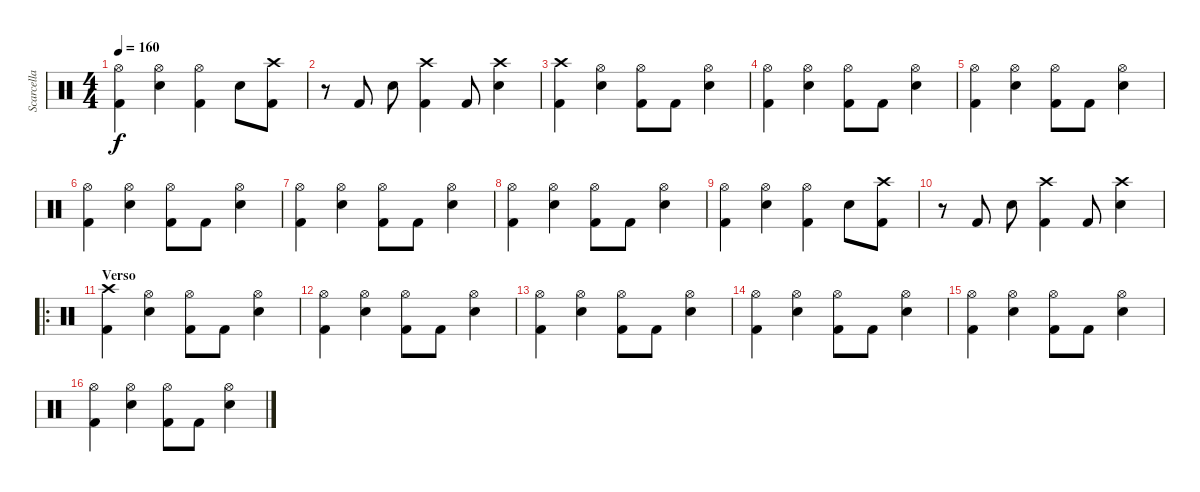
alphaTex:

\track ("Scarcella" "Scarcella") {instrument percussion}
\staff {score}
\articulation defaults
\ts (4 4)
\tempo 160
\clef neutral
\ks c
("Hi-Hat (open)" "Kick (hit) 2").4{dy f} ("Hi-Hat (open)" "Snare (hit) 2").4 ("Hi-Hat (open)" "Kick (hit) 2").4 "Snare (hit) 2".8 ("Crash high (hit)" "Kick (hit) 2").8 |
r.8 "Kick (hit) 2".8 "Snare (hit) 2".8 ("Crash high (hit)" "Kick (hit) 2").4 "Kick (hit) 2".8 ("Crash high (hit)" "Snare (hit) 2").4 |
("Crash high (hit)" "Kick (hit) 2").4 ("Hi-Hat (open)" "Snare (hit) 2").4 ("Hi-Hat (open)" "Kick (hit) 2").8 "Kick (hit) 2".8 ("Hi-Hat (open)" "Snare (hit) 2").4 |
("Hi-Hat (open)" "Kick (hit) 2").4 ("Hi-Hat (open)" "Snare (hit) 2").4 ("Hi-Hat (open)" "Kick (hit) 2").8 "Kick (hit) 2".8 ("Hi-Hat (open)" "Snare (hit) 2").4 |
("Hi-Hat (open)" "Kick (hit) 2").4 ("Hi-Hat (open)" "Snare (hit) 2").4 ("Hi-Hat (open)" "Kick (hit) 2").8 "Kick (hit) 2".8 ("Hi-Hat (open)" "Snare (hit) 2").4 |
("Hi-Hat (open)" "Kick (hit) 2").4 ("Hi-Hat (open)" "Snare (hit) 2").4 ("Hi-Hat (open)" "Kick (hit) 2").8 "Kick (hit) 2".8 ("Hi-Hat (open)" "Snare (hit) 2").4 |
("Hi-Hat (open)" "Kick (hit) 2").4 ("Hi-Hat (open)" "Snare (hit) 2").4 ("Hi-Hat (open)" "Kick (hit) 2").8 "Kick (hit) 2".8 ("Hi-Hat (open)" "Snare (hit) 2").4 |
("Hi-Hat (open)" "Kick (hit) 2").4 ("Hi-Hat (open)" "Snare (hit) 2").4 ("Hi-Hat (open)" "Kick (hit) 2").8 "Kick (hit) 2".8 ("Hi-Hat (open)" "Snare (hit) 2").4 |
("Hi-Hat (open)" "Kick (hit) 2").4 ("Hi-Hat (open)" "Snare (hit) 2").4 ("Hi-Hat (open)" "Kick (hit) 2").4 "Snare (hit) 2".8 ("Crash high (hit)" "Kick (hit) 2").8 |
r.8 "Kick (hit) 2".8 "Snare (hit) 2".8 ("Crash high (hit)" "Kick (hit) 2").4 "Kick (hit) 2".8 ("Crash high (hit)" "Snare (hit) 2").4 |
\ro
\section ("" "Verso")
("Crash high (hit)" "Kick (hit) 2").4 ("Hi-Hat (open)" "Snare (hit) 2").4 ("Hi-Hat (open)" "Kick (hit) 2").8 "Kick (hit) 2".8 ("Hi-Hat (open)" "Snare (hit) 2").4 |
("Hi-Hat (open)" "Kick (hit) 2").4 ("Hi-Hat (open)" "Snare (hit) 2").4 ("Hi-Hat (open)" "Kick (hit) 2").8 "Kick (hit) 2".8 ("Hi-Hat (open)" "Snare (hit) 2").4 |
("Hi-Hat (open)" "Kick (hit) 2").4 ("Hi-Hat (open)" "Snare (hit) 2").4 ("Hi-Hat (open)" "Kick (hit) 2").8 "Kick (hit) 2".8 ("Hi-Hat (open)" "Snare (hit) 2").4 |
("Hi-Hat (open)" "Kick (hit) 2").4 ("Hi-Hat (open)" "Snare (hit) 2").4 ("Hi-Hat (open)" "Kick (hit) 2").8 "Kick (hit) 2".8 ("Hi-Hat (open)" "Snare (hit) 2").4 |
("Hi-Hat (open)" "Kick (hit) 2").4 ("Hi-Hat (open)" "Snare (hit) 2").4 ("Hi-Hat (open)" "Kick (hit) 2").8 "Kick (hit) 2".8 ("Hi-Hat (open)" "Snare (hit) 2").4 |
("Hi-Hat (open)" "Kick (hit) 2").4 ("Hi-Hat (open)" "Snare (hit) 2").4 ("Hi-Hat (open)" "Kick (hit) 2").8 "Kick (hit) 2".8 ("Hi-Hat (open)" "Snare (hit) 2").4
